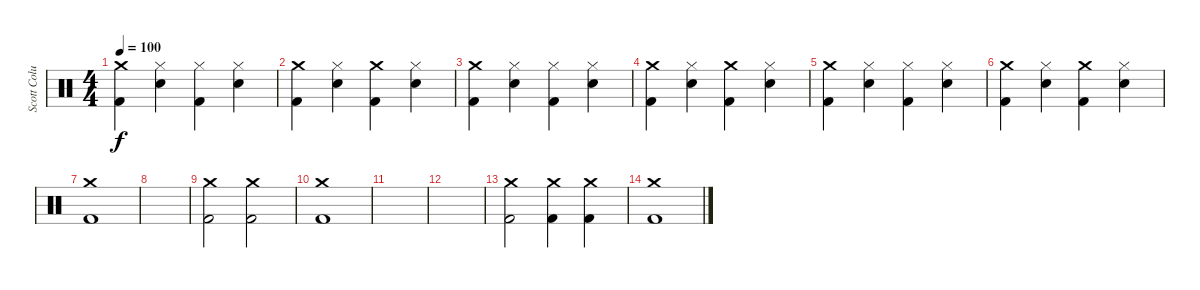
\track ("Scott Columbus" "Scott Colu") {instrument percussion}
\staff {score}
\articulation defaults
\ts (4 4)
\tempo 100
\clef neutral
\ks c
("Crash medium (hit)" "Kick (hit) 2").4{dy f} ("Hi-Hat (closed)" "Snare (hit) 2").4 ("Hi-Hat (closed)" "Kick (hit) 2").4 ("Hi-Hat (closed)" "Snare (hit) 2").4 |
("Crash medium (hit)" "Kick (hit) 2").4 ("Hi-Hat (closed)" "Snare (hit) 2").4 ("Crash medium (hit)" "Kick (hit) 2").4 ("Hi-Hat (closed)" "Snare (hit) 2").4 |
("Crash medium (hit)" "Kick (hit) 2").4 ("Hi-Hat (closed)" "Snare (hit) 2").4 ("Hi-Hat (closed)" "Kick (hit) 2").4 ("Hi-Hat (closed)" "Snare (hit) 2").4 |
("Crash medium (hit)" "Kick (hit) 2").4 ("Hi-Hat (closed)" "Snare (hit) 2").4 ("Crash medium (hit)" "Kick (hit) 2").4 ("Hi-Hat (closed)" "Snare (hit) 2").4 |
("Crash medium (hit)" "Kick (hit) 2").4 ("Hi-Hat (closed)" "Snare (hit) 2").4 ("Hi-Hat (closed)" "Kick (hit) 2").4 ("Hi-Hat (closed)" "Snare (hit) 2").4 |
("Crash medium (hit)" "Kick (hit) 2").4 ("Hi-Hat (closed)" "Snare (hit) 2").4 ("Crash medium (hit)" "Kick (hit) 2").4 ("Hi-Hat (closed)" "Snare (hit) 2").4 |
("Crash medium (hit)" "Kick (hit) 2").1 |
|
("Crash medium (hit)" "Kick (hit) 2").2 ("Crash medium (hit)" "Kick (hit) 2").2 |
("Crash medium (hit)" "Kick (hit) 2").1 |
|
|
("Crash medium (hit)" "Kick (hit) 2").2 ("Crash medium (hit)" "Kick (hit) 2").4 ("Crash medium (hit)" "Kick (hit) 2").4 |
("Crash medium (hit)" "Kick (hit) 2").1
